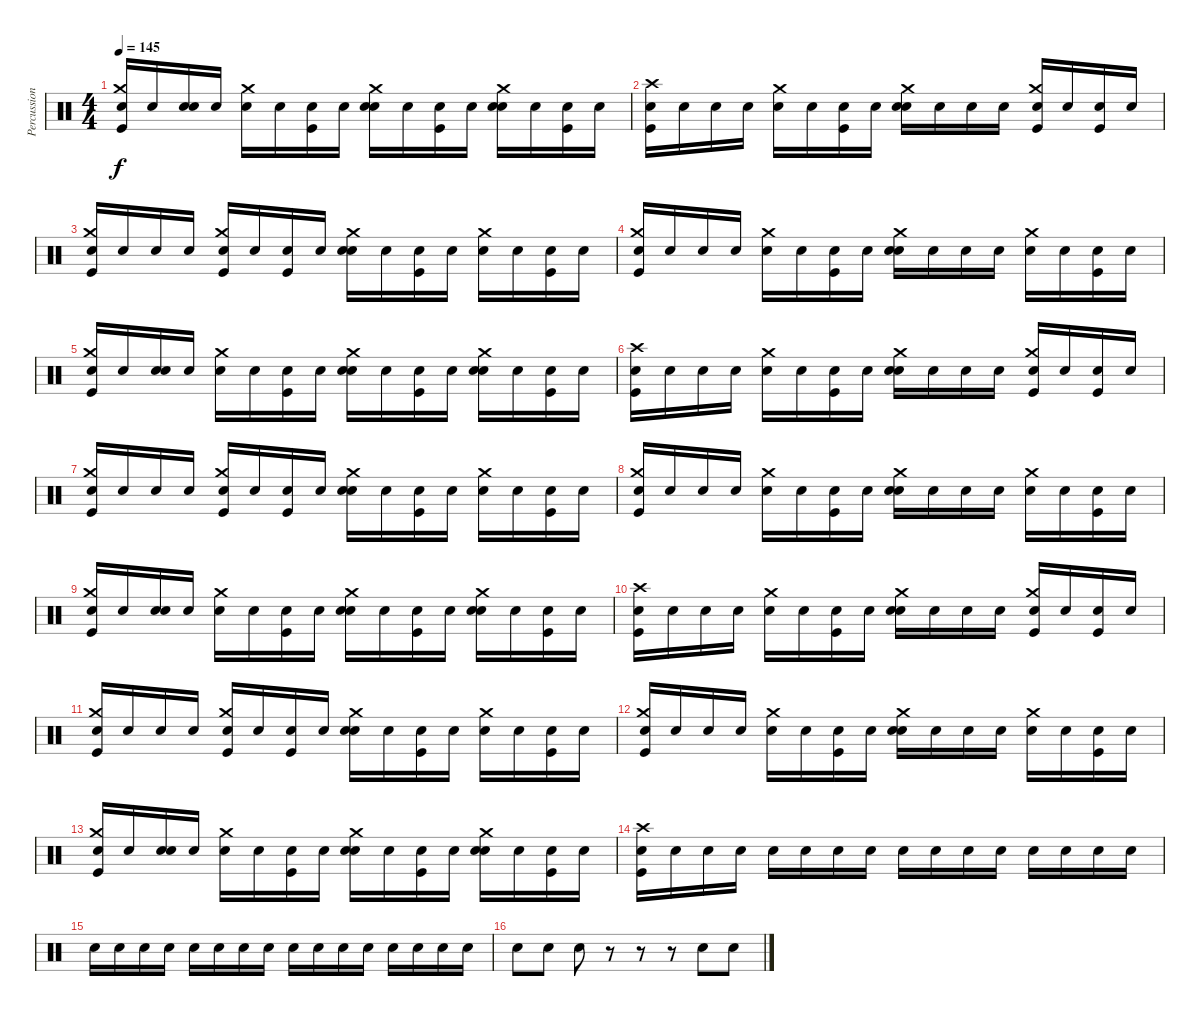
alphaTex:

\track ("Percussion" "Percussion") {instrument percussion}
\staff {score}
\articulation defaults
\ts (4 4)
\tempo 145
\clef neutral
\ks c
("Snare (hit)" "Crash medium (hit)" "Kick (hit)").16{dy f} "Snare (hit)".16 ("Snare (hit)" "Snare (hit) 2").16 "Snare (hit)".16 ("Snare (hit)" "Crash medium (hit)").16 "Snare (hit)".16 ("Snare (hit)" "Kick (hit)").16 "Snare (hit)".16 ("Snare (hit)" "Snare (hit) 2" "Crash medium (hit)").16 "Snare (hit)".16 ("Snare (hit)" "Kick (hit)").16 "Snare (hit)".16 ("Snare (hit)" "Snare (hit) 2" "Crash medium (hit)").16 "Snare (hit)".16 ("Snare (hit)" "Kick (hit)").16 "Snare (hit)".16 |
("Snare (hit)" "Crash high (hit)" "Kick (hit)").16 "Snare (hit)".16 "Snare (hit)".16 "Snare (hit)".16 ("Snare (hit)" "Crash medium (hit)").16 "Snare (hit)".16 ("Snare (hit)" "Kick (hit)").16 "Snare (hit)".16 ("Snare (hit)" "Crash medium (hit)" "Snare (hit) 2").16 "Snare (hit)".16 "Snare (hit)".16 "Snare (hit)".16 ("Snare (hit)" "Crash medium (hit)" "Kick (hit)").16 "Snare (hit)".16 ("Snare (hit)" "Kick (hit)").16 "Snare (hit)".16 |
("Snare (hit)" "Crash medium (hit)" "Kick (hit)").16 "Snare (hit)".16 "Snare (hit)".16 "Snare (hit)".16 ("Snare (hit)" "Crash medium (hit)" "Kick (hit)").16 "Snare (hit)".16 ("Snare (hit)" "Kick (hit)").16 "Snare (hit)".16 ("Snare (hit)" "Crash medium (hit)" "Snare (hit) 2").16 "Snare (hit)".16 ("Snare (hit)" "Kick (hit)").16 "Snare (hit)".16 ("Snare (hit)" "Crash medium (hit)").16 "Snare (hit)".16 ("Snare (hit)" "Kick (hit)").16 "Snare (hit)".16 |
("Snare (hit)" "Crash medium (hit)" "Kick (hit)").16 "Snare (hit)".16 "Snare (hit)".16 "Snare (hit)".16 ("Snare (hit)" "Crash medium (hit)").16 "Snare (hit)".16 ("Snare (hit)" "Kick (hit)").16 "Snare (hit)".16 ("Snare (hit)" "Crash medium (hit)" "Snare (hit) 2").16 "Snare (hit)".16 "Snare (hit)".16 "Snare (hit)".16 ("Snare (hit)" "Crash medium (hit)").16 "Snare (hit)".16 ("Snare (hit)" "Kick (hit)").16 "Snare (hit)".16 |
("Snare (hit)" "Crash medium (hit)" "Kick (hit)").16 "Snare (hit)".16 ("Snare (hit)" "Snare (hit) 2").16 "Snare (hit)".16 ("Snare (hit)" "Crash medium (hit)").16 "Snare (hit)".16 ("Snare (hit)" "Kick (hit)").16 "Snare (hit)".16 ("Snare (hit)" "Snare (hit) 2" "Crash medium (hit)").16 "Snare (hit)".16 ("Snare (hit)" "Kick (hit)").16 "Snare (hit)".16 ("Snare (hit)" "Snare (hit) 2" "Crash medium (hit)").16 "Snare (hit)".16 ("Snare (hit)" "Kick (hit)").16 "Snare (hit)".16 |
("Snare (hit)" "Crash high (hit)" "Kick (hit)").16 "Snare (hit)".16 "Snare (hit)".16 "Snare (hit)".16 ("Snare (hit)" "Crash medium (hit)").16 "Snare (hit)".16 ("Snare (hit)" "Kick (hit)").16 "Snare (hit)".16 ("Snare (hit)" "Crash medium (hit)" "Snare (hit) 2").16 "Snare (hit)".16 "Snare (hit)".16 "Snare (hit)".16 ("Snare (hit)" "Crash medium (hit)" "Kick (hit)").16 "Snare (hit)".16 ("Snare (hit)" "Kick (hit)").16 "Snare (hit)".16 |
("Snare (hit)" "Crash medium (hit)" "Kick (hit)").16 "Snare (hit)".16 "Snare (hit)".16 "Snare (hit)".16 ("Snare (hit)" "Crash medium (hit)" "Kick (hit)").16 "Snare (hit)".16 ("Snare (hit)" "Kick (hit)").16 "Snare (hit)".16 ("Snare (hit)" "Crash medium (hit)" "Snare (hit) 2").16 "Snare (hit)".16 ("Snare (hit)" "Kick (hit)").16 "Snare (hit)".16 ("Snare (hit)" "Crash medium (hit)").16 "Snare (hit)".16 ("Snare (hit)" "Kick (hit)").16 "Snare (hit)".16 |
("Snare (hit)" "Crash medium (hit)" "Kick (hit)").16 "Snare (hit)".16 "Snare (hit)".16 "Snare (hit)".16 ("Snare (hit)" "Crash medium (hit)").16 "Snare (hit)".16 ("Snare (hit)" "Kick (hit)").16 "Snare (hit)".16 ("Snare (hit)" "Crash medium (hit)" "Snare (hit) 2").16 "Snare (hit)".16 "Snare (hit)".16 "Snare (hit)".16 ("Snare (hit)" "Crash medium (hit)").16 "Snare (hit)".16 ("Snare (hit)" "Kick (hit)").16 "Snare (hit)".16 |
("Snare (hit)" "Crash medium (hit)" "Kick (hit)").16 "Snare (hit)".16 ("Snare (hit)" "Snare (hit) 2").16 "Snare (hit)".16 ("Snare (hit)" "Crash medium (hit)").16 "Snare (hit)".16 ("Snare (hit)" "Kick (hit)").16 "Snare (hit)".16 ("Snare (hit)" "Snare (hit) 2" "Crash medium (hit)").16 "Snare (hit)".16 ("Snare (hit)" "Kick (hit)").16 "Snare (hit)".16 ("Snare (hit)" "Snare (hit) 2" "Crash medium (hit)").16 "Snare (hit)".16 ("Snare (hit)" "Kick (hit)").16 "Snare (hit)".16 |
("Snare (hit)" "Crash high (hit)" "Kick (hit)").16 "Snare (hit)".16 "Snare (hit)".16 "Snare (hit)".16 ("Snare (hit)" "Crash medium (hit)").16 "Snare (hit)".16 ("Snare (hit)" "Kick (hit)").16 "Snare (hit)".16 ("Snare (hit)" "Crash medium (hit)" "Snare (hit) 2").16 "Snare (hit)".16 "Snare (hit)".16 "Snare (hit)".16 ("Snare (hit)" "Crash medium (hit)" "Kick (hit)").16 "Snare (hit)".16 ("Snare (hit)" "Kick (hit)").16 "Snare (hit)".16 |
("Snare (hit)" "Crash medium (hit)" "Kick (hit)").16 "Snare (hit)".16 "Snare (hit)".16 "Snare (hit)".16 ("Snare (hit)" "Crash medium (hit)" "Kick (hit)").16 "Snare (hit)".16 ("Snare (hit)" "Kick (hit)").16 "Snare (hit)".16 ("Snare (hit)" "Crash medium (hit)" "Snare (hit) 2").16 "Snare (hit)".16 ("Snare (hit)" "Kick (hit)").16 "Snare (hit)".16 ("Snare (hit)" "Crash medium (hit)").16 "Snare (hit)".16 ("Snare (hit)" "Kick (hit)").16 "Snare (hit)".16 |
("Snare (hit)" "Crash medium (hit)" "Kick (hit)").16 "Snare (hit)".16 "Snare (hit)".16 "Snare (hit)".16 ("Snare (hit)" "Crash medium (hit)").16 "Snare (hit)".16 ("Snare (hit)" "Kick (hit)").16 "Snare (hit)".16 ("Snare (hit)" "Crash medium (hit)" "Snare (hit) 2").16 "Snare (hit)".16 "Snare (hit)".16 "Snare (hit)".16 ("Snare (hit)" "Crash medium (hit)").16 "Snare (hit)".16 ("Snare (hit)" "Kick (hit)").16 "Snare (hit)".16 |
("Snare (hit)" "Crash medium (hit)" "Kick (hit)").16 "Snare (hit)".16 ("Snare (hit)" "Snare (hit) 2").16 "Snare (hit)".16 ("Snare (hit)" "Crash medium (hit)").16 "Snare (hit)".16 ("Snare (hit)" "Kick (hit)").16 "Snare (hit)".16 ("Snare (hit)" "Snare (hit) 2" "Crash medium (hit)").16 "Snare (hit)".16 ("Snare (hit)" "Kick (hit)").16 "Snare (hit)".16 ("Snare (hit)" "Snare (hit) 2" "Crash medium (hit)").16 "Snare (hit)".16 ("Snare (hit)" "Kick (hit)").16 "Snare (hit)".16 |
("Snare (hit)" "Crash high (hit)" "Kick (hit)").16 "Snare (hit)".16 "Snare (hit)".16 "Snare (hit)".16 "Snare (hit)".16 "Snare (hit)".16 "Snare (hit)".16 "Snare (hit)".16 "Snare (hit)".16 "Snare (hit)".16 "Snare (hit)".16 "Snare (hit)".16 "Snare (hit)".16 "Snare (hit)".16 "Snare (hit)".16 "Snare (hit)".16 |
"Snare (hit)".16 "Snare (hit)".16 "Snare (hit)".16 "Snare (hit)".16 "Snare (hit)".16 "Snare (hit)".16 "Snare (hit)".16 "Snare (hit)".16 "Snare (hit)".16 "Snare (hit)".16 "Snare (hit)".16 "Snare (hit)".16 "Snare (hit)".16 "Snare (hit)".16 "Snare (hit)".16 "Snare (hit)".16 |
"Snare (hit) 2".8 "Snare (hit) 2".8 "Snare (hit) 2".8 r.8 r.8 r.8 "Snare (hit) 2".8 "Snare (hit) 2".8
